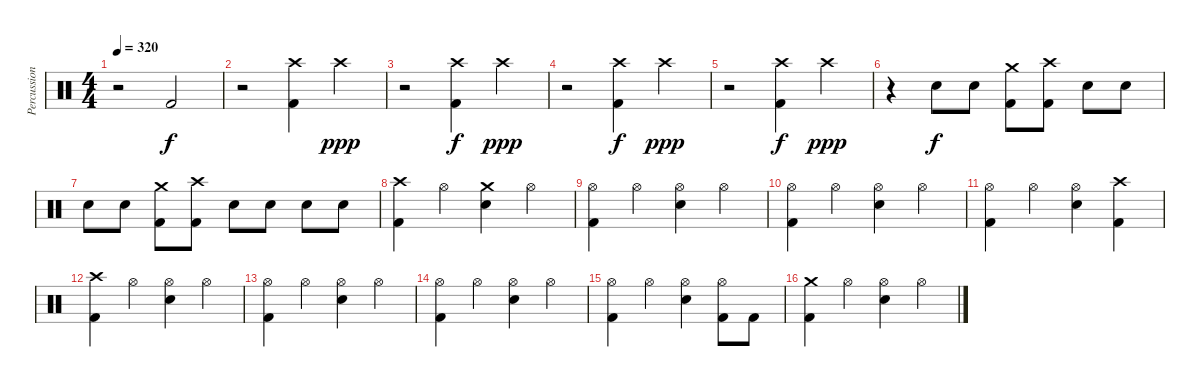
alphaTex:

\track ("Percussion" "Percussion") {instrument percussion}
\staff {score}
\articulation defaults
\ts (4 4)
\tempo 320
\clef neutral
\ks c
r.2{dy f} "Kick (hit) 2".2 |
r.2 ("Crash high (hit)" "Kick (hit) 2").4 "Crash high (hit)".4{dy ppp volume 0} |
r.2{volume 13} ("Crash high (hit)" "Kick (hit) 2").4{dy f} "Crash high (hit)".4{dy ppp volume 0} |
r.2{volume 13} ("Crash high (hit)" "Kick (hit) 2").4{dy f} "Crash high (hit)".4{dy ppp volume 0} |
r.2{volume 13} ("Crash high (hit)" "Kick (hit) 2").4{dy f} "Crash high (hit)".4{dy ppp volume 0} |
r.4{volume 13} "Electric Snare (hit)".8{dy f} "Electric Snare (hit)".8 ("Crash medium (hit)" "Kick (hit) 2").8 ("Crash high (hit)" "Kick (hit) 2").8 "Electric Snare (hit)".8 "Electric Snare (hit)".8 |
"Electric Snare (hit)".8 "Electric Snare (hit)".8 ("Crash medium (hit)" "Kick (hit) 2").8 ("Crash high (hit)" "Kick (hit) 2").8 "Electric Snare (hit)".8 "Electric Snare (hit)".8 "Electric Snare (hit)".8 "Electric Snare (hit)".8 |
("Crash high (hit)" "Kick (hit) 2").4 "Hi-Hat (open)".4 ("Crash medium (hit)" "Electric Snare (hit)").4 "Hi-Hat (open)".4 |
("Hi-Hat (open)" "Kick (hit) 2").4 "Hi-Hat (open)".4 ("Hi-Hat (open)" "Electric Snare (hit)").4 "Hi-Hat (open)".4 |
("Hi-Hat (open)" "Kick (hit) 2").4 "Hi-Hat (open)".4 ("Hi-Hat (open)" "Electric Snare (hit)").4 "Hi-Hat (open)".4 |
("Hi-Hat (open)" "Kick (hit) 2").4 "Hi-Hat (open)".4 ("Hi-Hat (open)" "Electric Snare (hit)").4 ("Crash high (hit)" "Kick (hit) 2").4 |
("Crash high (hit)" "Kick (hit) 2").4 "Hi-Hat (open)".4 ("Hi-Hat (open)" "Electric Snare (hit)").4 "Hi-Hat (open)".4 |
("Hi-Hat (open)" "Kick (hit) 2").4 "Hi-Hat (open)".4 ("Hi-Hat (open)" "Electric Snare (hit)").4 "Hi-Hat (open)".4 |
("Hi-Hat (open)" "Kick (hit) 2").4 "Hi-Hat (open)".4 ("Hi-Hat (open)" "Electric Snare (hit)").4 "Hi-Hat (open)".4 |
("Hi-Hat (open)" "Kick (hit) 2").4 "Hi-Hat (open)".4 ("Hi-Hat (open)" "Electric Snare (hit)").4 ("Hi-Hat (open)" "Kick (hit) 2").8 "Kick (hit) 2".8 |
("Crash medium (hit)" "Kick (hit) 2").4 "Hi-Hat (open)".4 ("Hi-Hat (open)" "Electric Snare (hit)").4 "Hi-Hat (open)".4
